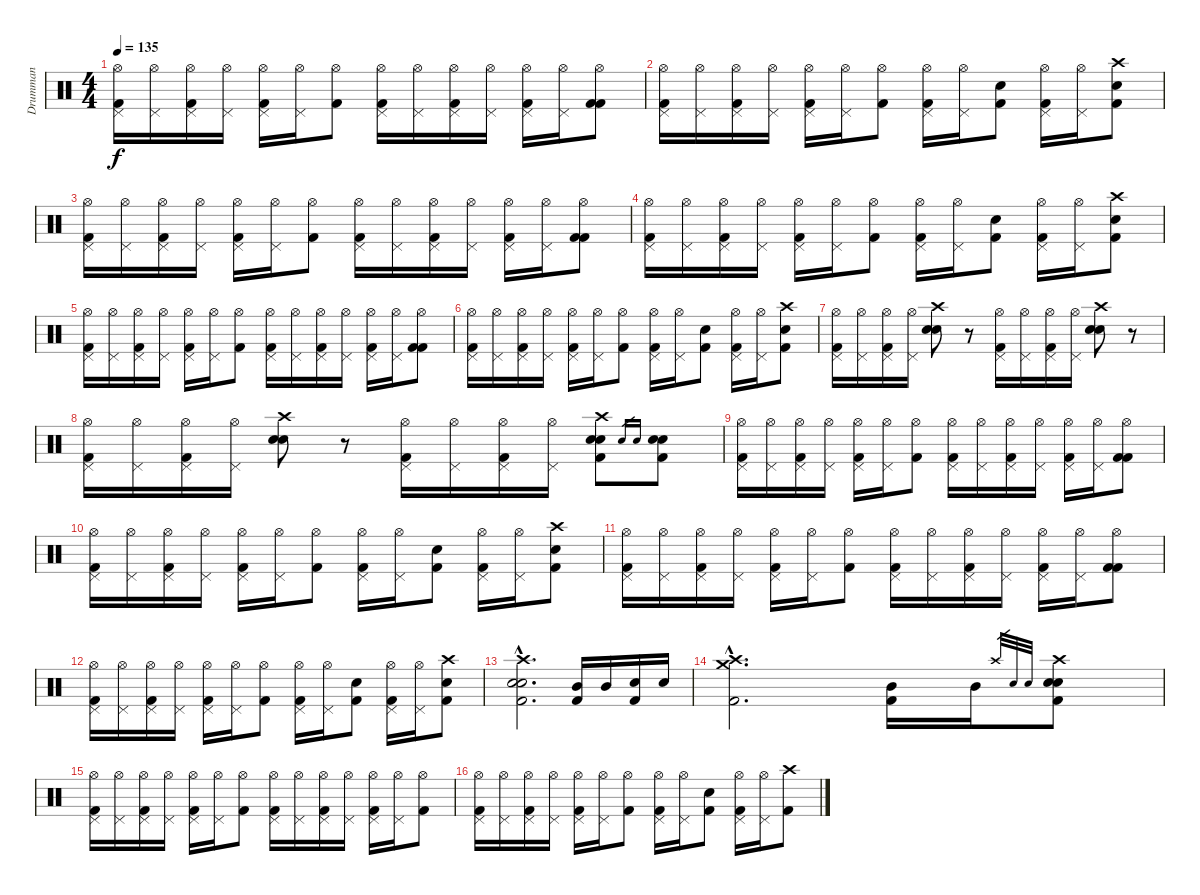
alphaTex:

\track ("Drumman" "Drumman") {instrument percussion}
\staff {score}
\articulation defaults
\ts (4 4)
\tempo 135
\clef neutral
\ks c
("Hi-Hat (open)" "Pedal Hi-Hat (hit)" "Kick (hit) 2").16{dy f} ("Hi-Hat (open)" "Pedal Hi-Hat (hit)").16 ("Hi-Hat (open)" "Pedal Hi-Hat (hit)" "Kick (hit) 2").16 ("Hi-Hat (open)" "Pedal Hi-Hat (hit)").16 ("Hi-Hat (open)" "Pedal Hi-Hat (hit)" "Kick (hit) 2").16 ("Hi-Hat (open)" "Pedal Hi-Hat (hit)").16 ("Hi-Hat (open)" "Kick (hit) 2").8 ("Hi-Hat (open)" "Pedal Hi-Hat (hit)" "Kick (hit) 2").16 ("Hi-Hat (open)" "Pedal Hi-Hat (hit)").16 ("Hi-Hat (open)" "Pedal Hi-Hat (hit)" "Kick (hit) 2").16 ("Hi-Hat (open)" "Pedal Hi-Hat (hit)").16 ("Hi-Hat (open)" "Pedal Hi-Hat (hit)" "Kick (hit) 2").16 ("Hi-Hat (open)" "Pedal Hi-Hat (hit)").16 ("Hi-Hat (open)" "Kick (hit) 2" "Kick (hit) 2").8 |
("Hi-Hat (open)" "Pedal Hi-Hat (hit)" "Kick (hit) 2").16 ("Hi-Hat (open)" "Pedal Hi-Hat (hit)").16 ("Hi-Hat (open)" "Pedal Hi-Hat (hit)" "Kick (hit) 2").16 ("Hi-Hat (open)" "Pedal Hi-Hat (hit)").16 ("Hi-Hat (open)" "Pedal Hi-Hat (hit)" "Kick (hit) 2").16 ("Hi-Hat (open)" "Pedal Hi-Hat (hit)").16 ("Hi-Hat (open)" "Kick (hit) 2").8 ("Hi-Hat (open)" "Pedal Hi-Hat (hit)" "Kick (hit) 2").16 ("Hi-Hat (open)" "Pedal Hi-Hat (hit)").16 ("Snare (hit) 2" "Kick (hit) 2").8 ("Hi-Hat (open)" "Pedal Hi-Hat (hit)" "Kick (hit) 2").16 ("Hi-Hat (open)" "Pedal Hi-Hat (hit)").16 ("Crash high (hit)" "Snare (hit) 2" "Kick (hit) 2").8 |
("Hi-Hat (open)" "Pedal Hi-Hat (hit)" "Kick (hit) 2").16 ("Hi-Hat (open)" "Pedal Hi-Hat (hit)").16 ("Hi-Hat (open)" "Pedal Hi-Hat (hit)" "Kick (hit) 2").16 ("Hi-Hat (open)" "Pedal Hi-Hat (hit)").16 ("Hi-Hat (open)" "Pedal Hi-Hat (hit)" "Kick (hit) 2").16 ("Hi-Hat (open)" "Pedal Hi-Hat (hit)").16 ("Hi-Hat (open)" "Kick (hit) 2").8 ("Hi-Hat (open)" "Pedal Hi-Hat (hit)" "Kick (hit) 2").16 ("Hi-Hat (open)" "Pedal Hi-Hat (hit)").16 ("Hi-Hat (open)" "Pedal Hi-Hat (hit)" "Kick (hit) 2").16 ("Hi-Hat (open)" "Pedal Hi-Hat (hit)").16 ("Hi-Hat (open)" "Pedal Hi-Hat (hit)" "Kick (hit) 2").16 ("Hi-Hat (open)" "Pedal Hi-Hat (hit)").16 ("Hi-Hat (open)" "Kick (hit) 2" "Kick (hit) 2").8 |
("Hi-Hat (open)" "Pedal Hi-Hat (hit)" "Kick (hit) 2").16 ("Hi-Hat (open)" "Pedal Hi-Hat (hit)").16 ("Hi-Hat (open)" "Pedal Hi-Hat (hit)" "Kick (hit) 2").16 ("Hi-Hat (open)" "Pedal Hi-Hat (hit)").16 ("Hi-Hat (open)" "Pedal Hi-Hat (hit)" "Kick (hit) 2").16 ("Hi-Hat (open)" "Pedal Hi-Hat (hit)").16 ("Hi-Hat (open)" "Kick (hit) 2").8 ("Hi-Hat (open)" "Pedal Hi-Hat (hit)" "Kick (hit) 2").16 ("Hi-Hat (open)" "Pedal Hi-Hat (hit)").16 ("Snare (hit) 2" "Kick (hit) 2").8 ("Hi-Hat (open)" "Pedal Hi-Hat (hit)" "Kick (hit) 2").16 ("Hi-Hat (open)" "Pedal Hi-Hat (hit)").16 ("Crash high (hit)" "Snare (hit) 2" "Kick (hit) 2").8 |
("Hi-Hat (open)" "Pedal Hi-Hat (hit)" "Kick (hit) 2").16 ("Hi-Hat (open)" "Pedal Hi-Hat (hit)").16 ("Hi-Hat (open)" "Pedal Hi-Hat (hit)" "Kick (hit) 2").16 ("Hi-Hat (open)" "Pedal Hi-Hat (hit)").16 ("Hi-Hat (open)" "Pedal Hi-Hat (hit)" "Kick (hit) 2").16 ("Hi-Hat (open)" "Pedal Hi-Hat (hit)").16 ("Hi-Hat (open)" "Kick (hit) 2").8 ("Hi-Hat (open)" "Pedal Hi-Hat (hit)" "Kick (hit) 2").16 ("Hi-Hat (open)" "Pedal Hi-Hat (hit)").16 ("Hi-Hat (open)" "Pedal Hi-Hat (hit)" "Kick (hit) 2").16 ("Hi-Hat (open)" "Pedal Hi-Hat (hit)").16 ("Hi-Hat (open)" "Pedal Hi-Hat (hit)" "Kick (hit) 2").16 ("Hi-Hat (open)" "Pedal Hi-Hat (hit)").16 ("Hi-Hat (open)" "Kick (hit) 2" "Kick (hit) 2").8 |
("Hi-Hat (open)" "Pedal Hi-Hat (hit)" "Kick (hit) 2").16 ("Hi-Hat (open)" "Pedal Hi-Hat (hit)").16 ("Hi-Hat (open)" "Pedal Hi-Hat (hit)" "Kick (hit) 2").16 ("Hi-Hat (open)" "Pedal Hi-Hat (hit)").16 ("Hi-Hat (open)" "Pedal Hi-Hat (hit)" "Kick (hit) 2").16 ("Hi-Hat (open)" "Pedal Hi-Hat (hit)").16 ("Hi-Hat (open)" "Kick (hit) 2").8 ("Hi-Hat (open)" "Pedal Hi-Hat (hit)" "Kick (hit) 2").16 ("Hi-Hat (open)" "Pedal Hi-Hat (hit)").16 ("Snare (hit) 2" "Kick (hit) 2").8 ("Hi-Hat (open)" "Pedal Hi-Hat (hit)" "Kick (hit) 2").16 ("Hi-Hat (open)" "Pedal Hi-Hat (hit)").16 ("Crash high (hit)" "Snare (hit) 2" "Kick (hit) 2").8 |
("Hi-Hat (open)" "Pedal Hi-Hat (hit)" "Kick (hit) 2").16 ("Hi-Hat (open)" "Pedal Hi-Hat (hit)").16 ("Hi-Hat (open)" "Pedal Hi-Hat (hit)" "Kick (hit) 2").16 ("Hi-Hat (open)" "Pedal Hi-Hat (hit)").16 ("Snare (hit) 2" "Snare (hit) 2" "Crash high (hit)").8 r.8 ("Hi-Hat (open)" "Pedal Hi-Hat (hit)" "Kick (hit) 2").16 ("Hi-Hat (open)" "Pedal Hi-Hat (hit)").16 ("Hi-Hat (open)" "Pedal Hi-Hat (hit)" "Kick (hit) 2").16 ("Hi-Hat (open)" "Pedal Hi-Hat (hit)").16 ("Crash high (hit)" "Snare (hit) 2" "Snare (hit) 2").8 r.8 |
("Hi-Hat (open)" "Pedal Hi-Hat (hit)" "Kick (hit) 2").16 ("Hi-Hat (open)" "Pedal Hi-Hat (hit)").16 ("Hi-Hat (open)" "Pedal Hi-Hat (hit)" "Kick (hit) 2").16 ("Hi-Hat (open)" "Pedal Hi-Hat (hit)").16 ("Snare (hit) 2" "Snare (hit) 2" "Crash high (hit)").8 r.8 ("Hi-Hat (open)" "Pedal Hi-Hat (hit)" "Kick (hit) 2").16 ("Hi-Hat (open)" "Pedal Hi-Hat (hit)").16 ("Hi-Hat (open)" "Pedal Hi-Hat (hit)" "Kick (hit) 2").16 ("Hi-Hat (open)" "Pedal Hi-Hat (hit)").16 ("Crash high (hit)" "Snare (hit) 2" "Snare (hit) 2" "Kick (hit) 2").8 "Snare (hit) 2".16{gr} "Snare (hit) 2".16{gr} ("Snare (hit) 2" "Snare (hit) 2" "Kick (hit) 2").8 |
("Hi-Hat (open)" "Pedal Hi-Hat (hit)" "Kick (hit) 2").16 ("Hi-Hat (open)" "Pedal Hi-Hat (hit)").16 ("Hi-Hat (open)" "Pedal Hi-Hat (hit)" "Kick (hit) 2").16 ("Hi-Hat (open)" "Pedal Hi-Hat (hit)").16 ("Hi-Hat (open)" "Pedal Hi-Hat (hit)" "Kick (hit) 2").16 ("Hi-Hat (open)" "Pedal Hi-Hat (hit)").16 ("Hi-Hat (open)" "Kick (hit) 2").8 ("Hi-Hat (open)" "Pedal Hi-Hat (hit)" "Kick (hit) 2").16 ("Hi-Hat (open)" "Pedal Hi-Hat (hit)").16 ("Hi-Hat (open)" "Pedal Hi-Hat (hit)" "Kick (hit) 2").16 ("Hi-Hat (open)" "Pedal Hi-Hat (hit)").16 ("Hi-Hat (open)" "Pedal Hi-Hat (hit)" "Kick (hit) 2").16 ("Hi-Hat (open)" "Pedal Hi-Hat (hit)").16 ("Hi-Hat (open)" "Kick (hit) 2" "Kick (hit) 2").8 |
("Hi-Hat (open)" "Pedal Hi-Hat (hit)" "Kick (hit) 2").16 ("Hi-Hat (open)" "Pedal Hi-Hat (hit)").16 ("Hi-Hat (open)" "Pedal Hi-Hat (hit)" "Kick (hit) 2").16 ("Hi-Hat (open)" "Pedal Hi-Hat (hit)").16 ("Hi-Hat (open)" "Pedal Hi-Hat (hit)" "Kick (hit) 2").16 ("Hi-Hat (open)" "Pedal Hi-Hat (hit)").16 ("Hi-Hat (open)" "Kick (hit) 2").8 ("Hi-Hat (open)" "Pedal Hi-Hat (hit)" "Kick (hit) 2").16 ("Hi-Hat (open)" "Pedal Hi-Hat (hit)").16 ("Snare (hit) 2" "Kick (hit) 2").8 ("Hi-Hat (open)" "Pedal Hi-Hat (hit)" "Kick (hit) 2").16 ("Hi-Hat (open)" "Pedal Hi-Hat (hit)").16 ("Crash high (hit)" "Snare (hit) 2" "Kick (hit) 2").8 |
("Hi-Hat (open)" "Pedal Hi-Hat (hit)" "Kick (hit) 2").16 ("Hi-Hat (open)" "Pedal Hi-Hat (hit)").16 ("Hi-Hat (open)" "Pedal Hi-Hat (hit)" "Kick (hit) 2").16 ("Hi-Hat (open)" "Pedal Hi-Hat (hit)").16 ("Hi-Hat (open)" "Pedal Hi-Hat (hit)" "Kick (hit) 2").16 ("Hi-Hat (open)" "Pedal Hi-Hat (hit)").16 ("Hi-Hat (open)" "Kick (hit) 2").8 ("Hi-Hat (open)" "Pedal Hi-Hat (hit)" "Kick (hit) 2").16 ("Hi-Hat (open)" "Pedal Hi-Hat (hit)").16 ("Hi-Hat (open)" "Pedal Hi-Hat (hit)" "Kick (hit) 2").16 ("Hi-Hat (open)" "Pedal Hi-Hat (hit)").16 ("Hi-Hat (open)" "Pedal Hi-Hat (hit)" "Kick (hit) 2").16 ("Hi-Hat (open)" "Pedal Hi-Hat (hit)").16 ("Hi-Hat (open)" "Kick (hit) 2" "Kick (hit) 2").8 |
("Hi-Hat (open)" "Pedal Hi-Hat (hit)" "Kick (hit) 2").16 ("Hi-Hat (open)" "Pedal Hi-Hat (hit)").16 ("Hi-Hat (open)" "Pedal Hi-Hat (hit)" "Kick (hit) 2").16 ("Hi-Hat (open)" "Pedal Hi-Hat (hit)").16 ("Hi-Hat (open)" "Pedal Hi-Hat (hit)" "Kick (hit) 2").16 ("Hi-Hat (open)" "Pedal Hi-Hat (hit)").16 ("Hi-Hat (open)" "Kick (hit) 2").8 ("Hi-Hat (open)" "Pedal Hi-Hat (hit)" "Kick (hit) 2").16 ("Hi-Hat (open)" "Pedal Hi-Hat (hit)").16 ("Snare (hit) 2" "Kick (hit) 2").8 ("Hi-Hat (open)" "Pedal Hi-Hat (hit)" "Kick (hit) 2").16 ("Hi-Hat (open)" "Pedal Hi-Hat (hit)").16 ("Crash high (hit)" "Snare (hit) 2" "Kick (hit) 2").8 |
("Crash high (hit)"{hac} "Snare (hit) 2"{hac} "Snare (hit) 2"{hac} "Kick (hit) 2"{hac}).2{d bd 120} ("Kick (hit) 2" "Mid Tom (hit)").16 "Mid Tom (hit)".16 ("Kick (hit) 2" "Snare (hit) 2").16 "Snare (hit) 2".16 |
("Crash medium (hit)"{hac} "Crash high (hit)"{hac} "Kick (hit) 2"{hac}).2{d bd 120} ("Mid Tom (hit)" "Kick (hit) 2").16 "Mid Tom (hit)".16 "Crash high (hit)".32{gr} "Snare (hit) 2".32{gr} "Snare (hit) 2".32{gr} ("Crash high (hit)" "Snare (hit) 2" "Snare (hit) 2" "Kick (hit) 2").8{bd 120} |
("Hi-Hat (open)" "Pedal Hi-Hat (hit)" "Kick (hit) 2").16 ("Hi-Hat (open)" "Pedal Hi-Hat (hit)").16 ("Hi-Hat (open)" "Pedal Hi-Hat (hit)" "Kick (hit) 2").16 ("Hi-Hat (open)" "Pedal Hi-Hat (hit)").16 ("Hi-Hat (open)" "Pedal Hi-Hat (hit)" "Kick (hit) 2").16 ("Hi-Hat (open)" "Pedal Hi-Hat (hit)").16 ("Hi-Hat (open)" "Kick (hit) 2").8 ("Hi-Hat (open)" "Pedal Hi-Hat (hit)" "Kick (hit) 2").16 ("Hi-Hat (open)" "Pedal Hi-Hat (hit)").16 ("Hi-Hat (open)" "Pedal Hi-Hat (hit)" "Kick (hit) 2").16 ("Hi-Hat (open)" "Pedal Hi-Hat (hit)").16 ("Hi-Hat (open)" "Pedal Hi-Hat (hit)" "Kick (hit) 2").16 ("Hi-Hat (open)" "Pedal Hi-Hat (hit)").16 ("Hi-Hat (open)" "Kick (hit) 2").8 |
("Hi-Hat (open)" "Pedal Hi-Hat (hit)" "Kick (hit) 2").16 ("Hi-Hat (open)" "Pedal Hi-Hat (hit)").16 ("Hi-Hat (open)" "Pedal Hi-Hat (hit)" "Kick (hit) 2").16 ("Hi-Hat (open)" "Pedal Hi-Hat (hit)").16 ("Hi-Hat (open)" "Pedal Hi-Hat (hit)" "Kick (hit) 2").16 ("Hi-Hat (open)" "Pedal Hi-Hat (hit)").16 ("Hi-Hat (open)" "Kick (hit) 2").8 ("Hi-Hat (open)" "Pedal Hi-Hat (hit)" "Kick (hit) 2").16 ("Hi-Hat (open)" "Pedal Hi-Hat (hit)").16 ("Snare (hit) 2" "Kick (hit) 2").8 ("Hi-Hat (open)" "Pedal Hi-Hat (hit)" "Kick (hit) 2").16 ("Hi-Hat (open)" "Pedal Hi-Hat (hit)").16 ("Crash high (hit)" "Kick (hit) 2").8
